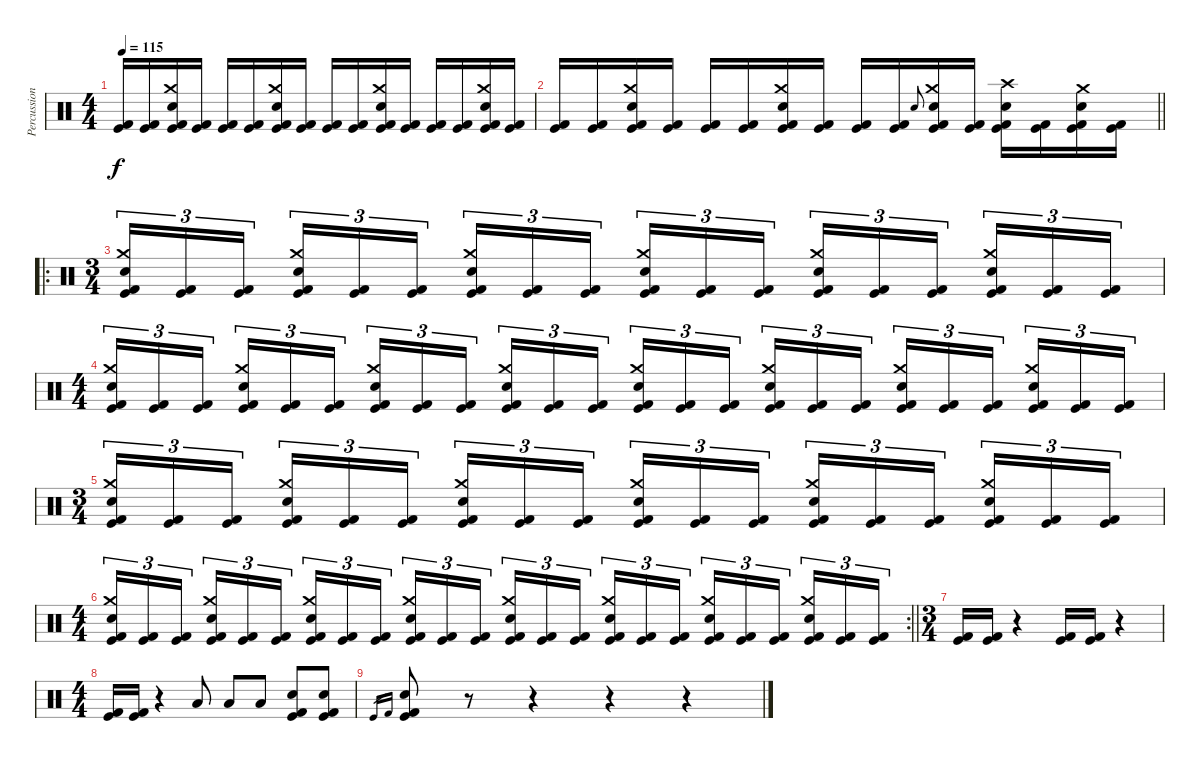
\track ("Percussion" "Percussion") {instrument percussion}
\staff {score}
\articulation defaults
\ts (4 4)
\tempo 115
\clef neutral
\ks c
("Kick (hit)" "Kick (hit) 2").16{dy f} ("Kick (hit)" "Kick (hit) 2").16 ("Crash medium (hit)" "Electric Snare (hit)" "Kick (hit)" "Kick (hit) 2").16 ("Kick (hit)" "Kick (hit) 2").16 ("Kick (hit)" "Kick (hit) 2").16 ("Kick (hit)" "Kick (hit) 2").16 ("Crash medium (hit)" "Electric Snare (hit)" "Kick (hit)" "Kick (hit) 2").16 ("Kick (hit)" "Kick (hit) 2").16 ("Kick (hit)" "Kick (hit) 2").16 ("Kick (hit)" "Kick (hit) 2").16 ("Crash medium (hit)" "Electric Snare (hit)" "Kick (hit)" "Kick (hit) 2").16 ("Kick (hit)" "Kick (hit) 2").16 ("Kick (hit)" "Kick (hit) 2").16 ("Kick (hit)" "Kick (hit) 2").16 ("Crash medium (hit)" "Electric Snare (hit)" "Kick (hit)" "Kick (hit) 2").16 ("Kick (hit)" "Kick (hit) 2").16 |
\barLineRight lightlight
("Kick (hit)" "Kick (hit) 2").16 ("Kick (hit)" "Kick (hit) 2").16 ("Crash medium (hit)" "Electric Snare (hit)" "Kick (hit)" "Kick (hit) 2").16 ("Kick (hit)" "Kick (hit) 2").16 ("Kick (hit)" "Kick (hit) 2").16 ("Kick (hit)" "Kick (hit) 2").16 ("Crash medium (hit)" "Electric Snare (hit)" "Kick (hit)" "Kick (hit) 2").16 ("Kick (hit)" "Kick (hit) 2").16 ("Kick (hit)" "Kick (hit) 2").16 ("Kick (hit)" "Kick (hit) 2").16 "Electric Snare (hit)".8{gr onbeat} ("Crash medium (hit)" "Electric Snare (hit)" "Kick (hit)" "Kick (hit) 2").16 ("Kick (hit)" "Kick (hit) 2").16 ("Crash high (hit)" "Electric Snare (hit)" "Kick (hit)" "Kick (hit) 2").16 ("Kick (hit)" "Kick (hit) 2").16 ("Crash medium (hit)" "Electric Snare (hit)" "Kick (hit)" "Kick (hit) 2").16 ("Kick (hit)" "Kick (hit) 2").16 |
\ro
\ts (3 4)
\section ("" "")
("Crash medium (hit)" "Electric Snare (hit)" "Kick (hit)" "Kick (hit) 2").16{tu (3 2)} ("Kick (hit)" "Kick (hit) 2").16{tu (3 2)} ("Kick (hit)" "Kick (hit) 2").16{tu (3 2) beam splitsecondary} ("Crash medium (hit)" "Electric Snare (hit)" "Kick (hit)" "Kick (hit) 2").16{tu (3 2)} ("Kick (hit)" "Kick (hit) 2").16{tu (3 2)} ("Kick (hit)" "Kick (hit) 2").16{tu (3 2)} ("Crash medium (hit)" "Electric Snare (hit)" "Kick (hit)" "Kick (hit) 2").16{tu (3 2)} ("Kick (hit)" "Kick (hit) 2").16{tu (3 2)} ("Kick (hit)" "Kick (hit) 2").16{tu (3 2) beam splitsecondary} ("Crash medium (hit)" "Electric Snare (hit)" "Kick (hit)" "Kick (hit) 2").16{tu (3 2)} ("Kick (hit)" "Kick (hit) 2").16{tu (3 2)} ("Kick (hit)" "Kick (hit) 2").16{tu (3 2)} ("Crash medium (hit)" "Electric Snare (hit)" "Kick (hit)" "Kick (hit) 2").16{tu (3 2)} ("Kick (hit)" "Kick (hit) 2").16{tu (3 2)} ("Kick (hit)" "Kick (hit) 2").16{tu (3 2) beam splitsecondary} ("Crash medium (hit)" "Electric Snare (hit)" "Kick (hit)" "Kick (hit) 2").16{tu (3 2)} ("Kick (hit)" "Kick (hit) 2").16{tu (3 2)} ("Kick (hit)" "Kick (hit) 2").16{tu (3 2)} |
\ts (4 4)
("Crash medium (hit)" "Electric Snare (hit)" "Kick (hit)" "Kick (hit) 2").16{tu (3 2)} ("Kick (hit)" "Kick (hit) 2").16{tu (3 2)} ("Kick (hit)" "Kick (hit) 2").16{tu (3 2) beam splitsecondary} ("Crash medium (hit)" "Electric Snare (hit)" "Kick (hit)" "Kick (hit) 2").16{tu (3 2)} ("Kick (hit)" "Kick (hit) 2").16{tu (3 2)} ("Kick (hit)" "Kick (hit) 2").16{tu (3 2)} ("Crash medium (hit)" "Electric Snare (hit)" "Kick (hit)" "Kick (hit) 2").16{tu (3 2)} ("Kick (hit)" "Kick (hit) 2").16{tu (3 2)} ("Kick (hit)" "Kick (hit) 2").16{tu (3 2) beam splitsecondary} ("Crash medium (hit)" "Electric Snare (hit)" "Kick (hit)" "Kick (hit) 2").16{tu (3 2)} ("Kick (hit)" "Kick (hit) 2").16{tu (3 2)} ("Kick (hit)" "Kick (hit) 2").16{tu (3 2)} ("Crash medium (hit)" "Electric Snare (hit)" "Kick (hit)" "Kick (hit) 2").16{tu (3 2)} ("Kick (hit)" "Kick (hit) 2").16{tu (3 2)} ("Kick (hit)" "Kick (hit) 2").16{tu (3 2) beam splitsecondary} ("Crash medium (hit)" "Electric Snare (hit)" "Kick (hit)" "Kick (hit) 2").16{tu (3 2)} ("Kick (hit)" "Kick (hit) 2").16{tu (3 2)} ("Kick (hit)" "Kick (hit) 2").16{tu (3 2)} ("Crash medium (hit)" "Electric Snare (hit)" "Kick (hit)" "Kick (hit) 2").16{tu (3 2)} ("Kick (hit)" "Kick (hit) 2").16{tu (3 2)} ("Kick (hit)" "Kick (hit) 2").16{tu (3 2) beam splitsecondary} ("Crash medium (hit)" "Electric Snare (hit)" "Kick (hit)" "Kick (hit) 2").16{tu (3 2)} ("Kick (hit)" "Kick (hit) 2").16{tu (3 2)} ("Kick (hit)" "Kick (hit) 2").16{tu (3 2)} |
\ts (3 4)
("Crash medium (hit)" "Electric Snare (hit)" "Kick (hit)" "Kick (hit) 2").16{tu (3 2)} ("Kick (hit)" "Kick (hit) 2").16{tu (3 2)} ("Kick (hit)" "Kick (hit) 2").16{tu (3 2) beam splitsecondary} ("Crash medium (hit)" "Electric Snare (hit)" "Kick (hit)" "Kick (hit) 2").16{tu (3 2)} ("Kick (hit)" "Kick (hit) 2").16{tu (3 2)} ("Kick (hit)" "Kick (hit) 2").16{tu (3 2)} ("Crash medium (hit)" "Electric Snare (hit)" "Kick (hit)" "Kick (hit) 2").16{tu (3 2)} ("Kick (hit)" "Kick (hit) 2").16{tu (3 2)} ("Kick (hit)" "Kick (hit) 2").16{tu (3 2) beam splitsecondary} ("Crash medium (hit)" "Electric Snare (hit)" "Kick (hit)" "Kick (hit) 2").16{tu (3 2)} ("Kick (hit)" "Kick (hit) 2").16{tu (3 2)} ("Kick (hit)" "Kick (hit) 2").16{tu (3 2)} ("Crash medium (hit)" "Electric Snare (hit)" "Kick (hit)" "Kick (hit) 2").16{tu (3 2)} ("Kick (hit)" "Kick (hit) 2").16{tu (3 2)} ("Kick (hit)" "Kick (hit) 2").16{tu (3 2) beam splitsecondary} ("Crash medium (hit)" "Electric Snare (hit)" "Kick (hit)" "Kick (hit) 2").16{tu (3 2)} ("Kick (hit)" "Kick (hit) 2").16{tu (3 2)} ("Kick (hit)" "Kick (hit) 2").16{tu (3 2)} |
\rc 2
\ts (4 4)
\barLineRight lightlight
("Crash medium (hit)" "Electric Snare (hit)" "Kick (hit)" "Kick (hit) 2").16{tu (3 2)} ("Kick (hit)" "Kick (hit) 2").16{tu (3 2)} ("Kick (hit)" "Kick (hit) 2").16{tu (3 2) beam splitsecondary} ("Crash medium (hit)" "Electric Snare (hit)" "Kick (hit)" "Kick (hit) 2").16{tu (3 2)} ("Kick (hit)" "Kick (hit) 2").16{tu (3 2)} ("Kick (hit)" "Kick (hit) 2").16{tu (3 2)} ("Crash medium (hit)" "Electric Snare (hit)" "Kick (hit)" "Kick (hit) 2").16{tu (3 2)} ("Kick (hit)" "Kick (hit) 2").16{tu (3 2)} ("Kick (hit)" "Kick (hit) 2").16{tu (3 2) beam splitsecondary} ("Crash medium (hit)" "Electric Snare (hit)" "Kick (hit)" "Kick (hit) 2").16{tu (3 2)} ("Kick (hit)" "Kick (hit) 2").16{tu (3 2)} ("Kick (hit)" "Kick (hit) 2").16{tu (3 2)} ("Crash medium (hit)" "Electric Snare (hit)" "Kick (hit)" "Kick (hit) 2").16{tu (3 2)} ("Kick (hit)" "Kick (hit) 2").16{tu (3 2)} ("Kick (hit)" "Kick (hit) 2").16{tu (3 2) beam splitsecondary} ("Crash medium (hit)" "Electric Snare (hit)" "Kick (hit)" "Kick (hit) 2").16{tu (3 2)} ("Kick (hit)" "Kick (hit) 2").16{tu (3 2)} ("Kick (hit)" "Kick (hit) 2").16{tu (3 2)} ("Crash medium (hit)" "Electric Snare (hit)" "Kick (hit)" "Kick (hit) 2").16{tu (3 2)} ("Kick (hit)" "Kick (hit) 2").16{tu (3 2)} ("Kick (hit)" "Kick (hit) 2").16{tu (3 2) beam splitsecondary} ("Crash medium (hit)" "Electric Snare (hit)" "Kick (hit)" "Kick (hit) 2").16{tu (3 2)} ("Kick (hit)" "Kick (hit) 2").16{tu (3 2)} ("Kick (hit)" "Kick (hit) 2").16{tu (3 2)} |
\ts (3 4)
\section ("" "")
("Kick (hit)" "Kick (hit) 2").16 ("Kick (hit)" "Kick (hit) 2").16 r.4 ("Kick (hit)" "Kick (hit) 2").16 ("Kick (hit)" "Kick (hit) 2").16 r.4 |
\ts (4 4)
("Kick (hit)" "Kick (hit) 2").16 ("Kick (hit)" "Kick (hit) 2").16 r.4 "Low Tom (hit)".8 "Low Tom (hit)".8 "Low Tom (hit)".8 ("Electric Snare (hit)" "Kick (hit)" "Kick (hit) 2").8 ("Electric Snare (hit)" "Kick (hit)" "Kick (hit) 2").8 |
"Kick (hit)".16{gr} "Kick (hit) 2".16{gr} ("Electric Snare (hit)" "Kick (hit)" "Kick (hit) 2").8 r.8 r.4 r.4 r.4
